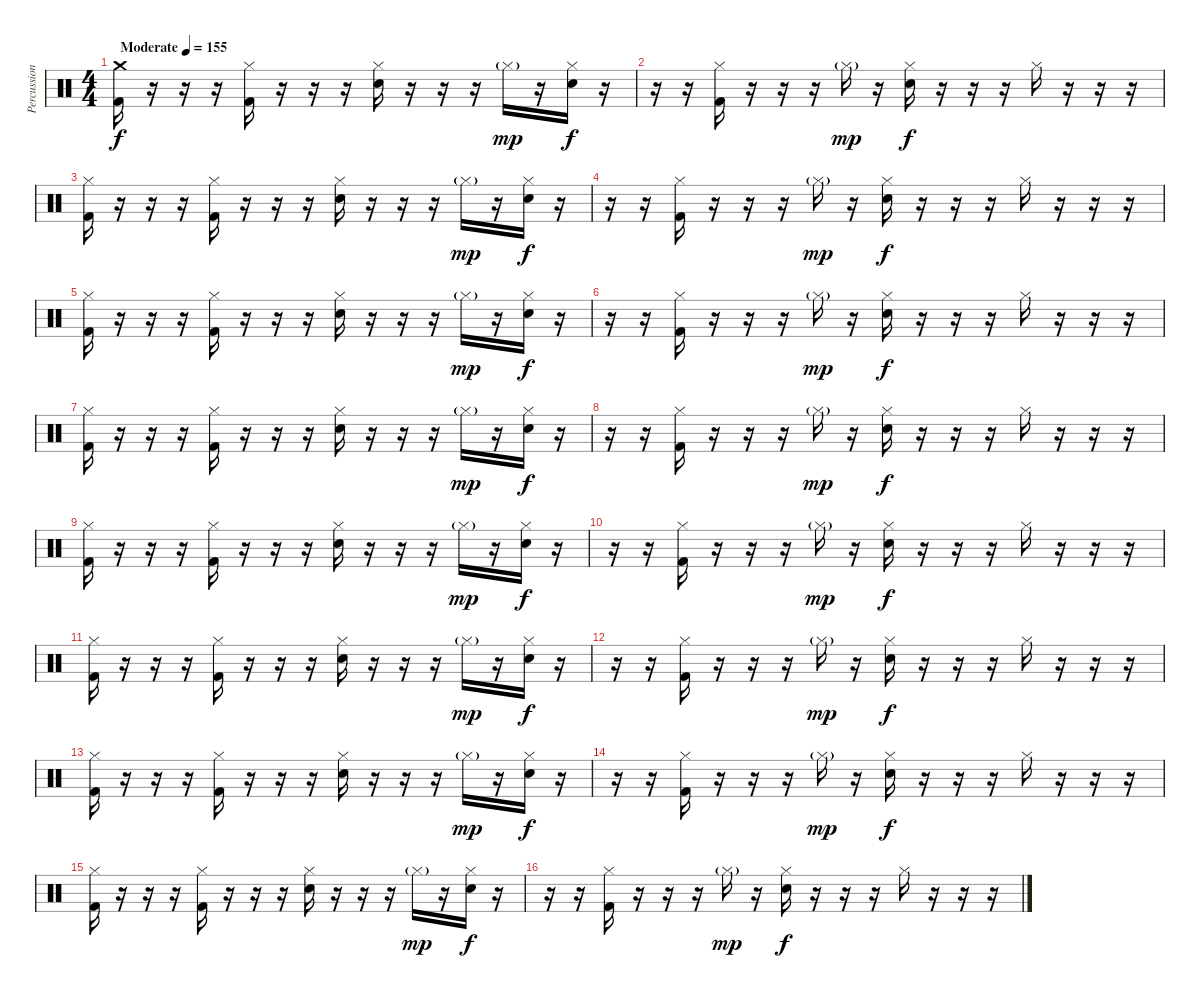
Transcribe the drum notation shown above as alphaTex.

\track ("Percussion" "Percussion") {instrument percussion}
\staff {score}
\articulation defaults
\ts (4 4)
\tempo (155 "Moderate")
\clef neutral
\ks c
("Crash medium (hit)" "Kick (hit) 2").16{dy f} r.16 r.16 r.16 ("Hi-Hat (closed)" "Kick (hit) 2").16 r.16 r.16 r.16 ("Hi-Hat (closed)" "Electric Snare (hit)").16 r.16 r.16 r.16 "Hi-Hat (closed)"{g}.16{dy mp} r.16 ("Hi-Hat (closed)" "Electric Snare (hit)").16{dy f} r.16 |
r.16 r.16 ("Hi-Hat (closed)" "Kick (hit) 2").16 r.16 r.16 r.16 "Hi-Hat (closed)"{g}.16{dy mp} r.16 ("Hi-Hat (closed)" "Electric Snare (hit)").16{dy f} r.16 r.16 r.16 "Hi-Hat (closed)".16 r.16 r.16 r.16 |
("Hi-Hat (closed)" "Kick (hit) 2").16 r.16 r.16 r.16 ("Hi-Hat (closed)" "Kick (hit) 2").16 r.16 r.16 r.16 ("Hi-Hat (closed)" "Electric Snare (hit)").16 r.16 r.16 r.16 "Hi-Hat (closed)"{g}.16{dy mp} r.16 ("Hi-Hat (closed)" "Electric Snare (hit)").16{dy f} r.16 |
r.16 r.16 ("Hi-Hat (closed)" "Kick (hit) 2").16 r.16 r.16 r.16 "Hi-Hat (closed)"{g}.16{dy mp} r.16 ("Hi-Hat (closed)" "Electric Snare (hit)").16{dy f} r.16 r.16 r.16 "Hi-Hat (closed)".16 r.16 r.16 r.16 |
("Hi-Hat (closed)" "Kick (hit) 2").16 r.16 r.16 r.16 ("Hi-Hat (closed)" "Kick (hit) 2").16 r.16 r.16 r.16 ("Hi-Hat (closed)" "Electric Snare (hit)").16 r.16 r.16 r.16 "Hi-Hat (closed)"{g}.16{dy mp} r.16 ("Hi-Hat (closed)" "Electric Snare (hit)").16{dy f} r.16 |
r.16 r.16 ("Hi-Hat (closed)" "Kick (hit) 2").16 r.16 r.16 r.16 "Hi-Hat (closed)"{g}.16{dy mp} r.16 ("Hi-Hat (closed)" "Electric Snare (hit)").16{dy f} r.16 r.16 r.16 "Hi-Hat (closed)".16 r.16 r.16 r.16 |
("Hi-Hat (closed)" "Kick (hit) 2").16 r.16 r.16 r.16 ("Hi-Hat (closed)" "Kick (hit) 2").16 r.16 r.16 r.16 ("Hi-Hat (closed)" "Electric Snare (hit)").16 r.16 r.16 r.16 "Hi-Hat (closed)"{g}.16{dy mp} r.16 ("Hi-Hat (closed)" "Electric Snare (hit)").16{dy f} r.16 |
r.16 r.16 ("Hi-Hat (closed)" "Kick (hit) 2").16 r.16 r.16 r.16 "Hi-Hat (closed)"{g}.16{dy mp} r.16 ("Hi-Hat (closed)" "Electric Snare (hit)").16{dy f} r.16 r.16 r.16 "Hi-Hat (closed)".16 r.16 r.16 r.16 |
("Hi-Hat (closed)" "Kick (hit) 2").16 r.16 r.16 r.16 ("Hi-Hat (closed)" "Kick (hit) 2").16 r.16 r.16 r.16 ("Hi-Hat (closed)" "Electric Snare (hit)").16 r.16 r.16 r.16 "Hi-Hat (closed)"{g}.16{dy mp} r.16 ("Hi-Hat (closed)" "Electric Snare (hit)").16{dy f} r.16 |
r.16 r.16 ("Hi-Hat (closed)" "Kick (hit) 2").16 r.16 r.16 r.16 "Hi-Hat (closed)"{g}.16{dy mp} r.16 ("Hi-Hat (closed)" "Electric Snare (hit)").16{dy f} r.16 r.16 r.16 "Hi-Hat (closed)".16 r.16 r.16 r.16 |
("Hi-Hat (closed)" "Kick (hit) 2").16 r.16 r.16 r.16 ("Hi-Hat (closed)" "Kick (hit) 2").16 r.16 r.16 r.16 ("Hi-Hat (closed)" "Electric Snare (hit)").16 r.16 r.16 r.16 "Hi-Hat (closed)"{g}.16{dy mp} r.16 ("Hi-Hat (closed)" "Electric Snare (hit)").16{dy f} r.16 |
r.16 r.16 ("Hi-Hat (closed)" "Kick (hit) 2").16 r.16 r.16 r.16 "Hi-Hat (closed)"{g}.16{dy mp} r.16 ("Hi-Hat (closed)" "Electric Snare (hit)").16{dy f} r.16 r.16 r.16 "Hi-Hat (closed)".16 r.16 r.16 r.16 |
("Hi-Hat (closed)" "Kick (hit) 2").16 r.16 r.16 r.16 ("Hi-Hat (closed)" "Kick (hit) 2").16 r.16 r.16 r.16 ("Hi-Hat (closed)" "Electric Snare (hit)").16 r.16 r.16 r.16 "Hi-Hat (closed)"{g}.16{dy mp} r.16 ("Hi-Hat (closed)" "Electric Snare (hit)").16{dy f} r.16 |
r.16 r.16 ("Hi-Hat (closed)" "Kick (hit) 2").16 r.16 r.16 r.16 "Hi-Hat (closed)"{g}.16{dy mp} r.16 ("Hi-Hat (closed)" "Electric Snare (hit)").16{dy f} r.16 r.16 r.16 "Hi-Hat (closed)".16 r.16 r.16 r.16 |
("Hi-Hat (closed)" "Kick (hit) 2").16 r.16 r.16 r.16 ("Hi-Hat (closed)" "Kick (hit) 2").16 r.16 r.16 r.16 ("Hi-Hat (closed)" "Electric Snare (hit)").16 r.16 r.16 r.16 "Hi-Hat (closed)"{g}.16{dy mp} r.16 ("Hi-Hat (closed)" "Electric Snare (hit)").16{dy f} r.16 |
r.16 r.16 ("Hi-Hat (closed)" "Kick (hit) 2").16 r.16 r.16 r.16 "Hi-Hat (closed)"{g}.16{dy mp} r.16 ("Hi-Hat (closed)" "Electric Snare (hit)").16{dy f} r.16 r.16 r.16 "Hi-Hat (closed)".16 r.16 r.16 r.16
